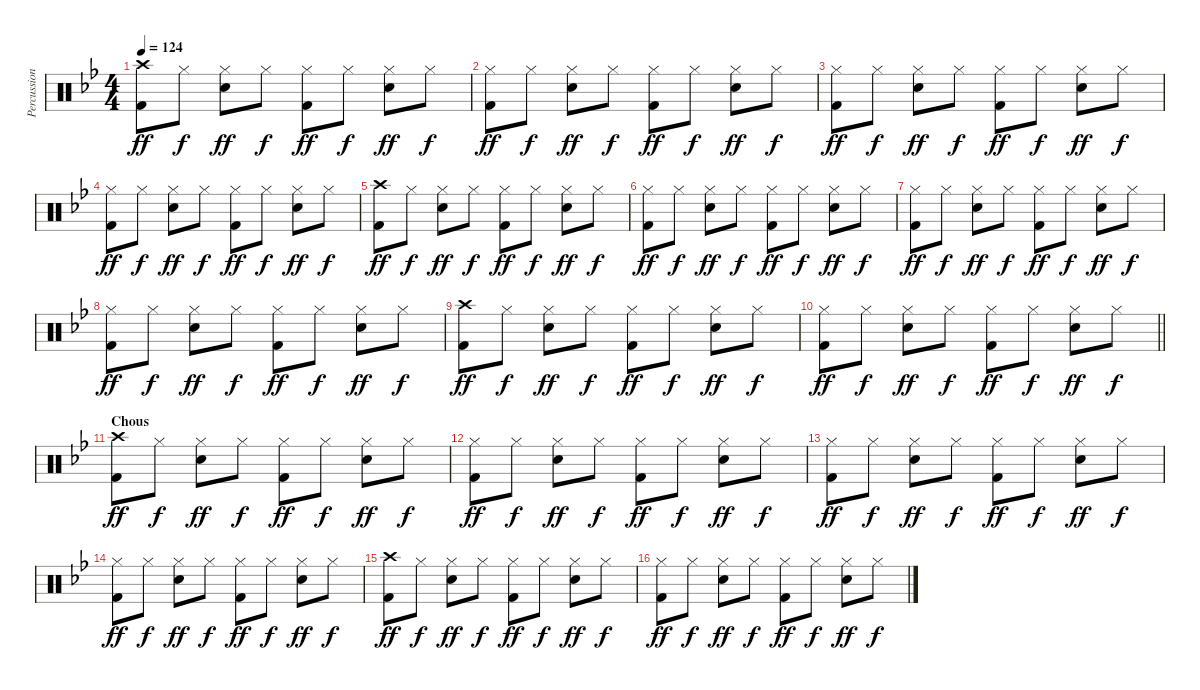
\track ("Percussion" "Percussion") {instrument percussion}
\staff {score}
\articulation defaults
\ts (4 4)
\tempo 124
\clef neutral
\ks gminor
("Crash high (hit)" "Kick (hit) 2").8{dy ff} "Hi-Hat (closed)".8{dy f} ("Hi-Hat (closed)" "Electric Snare (hit)").8{dy ff} "Hi-Hat (closed)".8{dy f} ("Hi-Hat (closed)" "Kick (hit) 2").8{dy ff} "Hi-Hat (closed)".8{dy f} ("Hi-Hat (closed)" "Electric Snare (hit)").8{dy ff} "Hi-Hat (closed)".8{dy f} |
("Hi-Hat (closed)" "Kick (hit) 2").8{dy ff} "Hi-Hat (closed)".8{dy f} ("Hi-Hat (closed)" "Electric Snare (hit)").8{dy ff} "Hi-Hat (closed)".8{dy f} ("Hi-Hat (closed)" "Kick (hit) 2").8{dy ff} "Hi-Hat (closed)".8{dy f} ("Hi-Hat (closed)" "Electric Snare (hit)").8{dy ff} "Hi-Hat (closed)".8{dy f} |
("Hi-Hat (closed)" "Kick (hit) 2").8{dy ff} "Hi-Hat (closed)".8{dy f} ("Hi-Hat (closed)" "Electric Snare (hit)").8{dy ff} "Hi-Hat (closed)".8{dy f} ("Hi-Hat (closed)" "Kick (hit) 2").8{dy ff} "Hi-Hat (closed)".8{dy f} ("Hi-Hat (closed)" "Electric Snare (hit)").8{dy ff} "Hi-Hat (closed)".8{dy f} |
("Hi-Hat (closed)" "Kick (hit) 2").8{dy ff} "Hi-Hat (closed)".8{dy f} ("Hi-Hat (closed)" "Electric Snare (hit)").8{dy ff} "Hi-Hat (closed)".8{dy f} ("Hi-Hat (closed)" "Kick (hit) 2").8{dy ff} "Hi-Hat (closed)".8{dy f} ("Hi-Hat (closed)" "Electric Snare (hit)").8{dy ff} "Hi-Hat (closed)".8{dy f} |
("Crash high (hit)" "Kick (hit) 2").8{dy ff} "Hi-Hat (closed)".8{dy f} ("Hi-Hat (closed)" "Electric Snare (hit)").8{dy ff} "Hi-Hat (closed)".8{dy f} ("Hi-Hat (closed)" "Kick (hit) 2").8{dy ff} "Hi-Hat (closed)".8{dy f} ("Hi-Hat (closed)" "Electric Snare (hit)").8{dy ff} "Hi-Hat (closed)".8{dy f} |
("Hi-Hat (closed)" "Kick (hit) 2").8{dy ff} "Hi-Hat (closed)".8{dy f} ("Hi-Hat (closed)" "Electric Snare (hit)").8{dy ff} "Hi-Hat (closed)".8{dy f} ("Hi-Hat (closed)" "Kick (hit) 2").8{dy ff} "Hi-Hat (closed)".8{dy f} ("Hi-Hat (closed)" "Electric Snare (hit)").8{dy ff} "Hi-Hat (closed)".8{dy f} |
("Hi-Hat (closed)" "Kick (hit) 2").8{dy ff} "Hi-Hat (closed)".8{dy f} ("Hi-Hat (closed)" "Electric Snare (hit)").8{dy ff} "Hi-Hat (closed)".8{dy f} ("Hi-Hat (closed)" "Kick (hit) 2").8{dy ff} "Hi-Hat (closed)".8{dy f} ("Hi-Hat (closed)" "Electric Snare (hit)").8{dy ff} "Hi-Hat (closed)".8{dy f} |
("Hi-Hat (closed)" "Kick (hit) 2").8{dy ff} "Hi-Hat (closed)".8{dy f} ("Hi-Hat (closed)" "Electric Snare (hit)").8{dy ff} "Hi-Hat (closed)".8{dy f} ("Hi-Hat (closed)" "Kick (hit) 2").8{dy ff} "Hi-Hat (closed)".8{dy f} ("Hi-Hat (closed)" "Electric Snare (hit)").8{dy ff} "Hi-Hat (closed)".8{dy f} |
("Crash high (hit)" "Kick (hit) 2").8{dy ff} "Hi-Hat (closed)".8{dy f} ("Hi-Hat (closed)" "Electric Snare (hit)").8{dy ff} "Hi-Hat (closed)".8{dy f} ("Hi-Hat (closed)" "Kick (hit) 2").8{dy ff} "Hi-Hat (closed)".8{dy f} ("Hi-Hat (closed)" "Electric Snare (hit)").8{dy ff} "Hi-Hat (closed)".8{dy f} |
\barLineRight lightlight
("Hi-Hat (closed)" "Kick (hit) 2").8{dy ff} "Hi-Hat (closed)".8{dy f} ("Hi-Hat (closed)" "Electric Snare (hit)").8{dy ff} "Hi-Hat (closed)".8{dy f} ("Hi-Hat (closed)" "Kick (hit) 2").8{dy ff} "Hi-Hat (closed)".8{dy f} ("Hi-Hat (closed)" "Electric Snare (hit)").8{dy ff} "Hi-Hat (closed)".8{dy f} |
\section ("" "Chous")
("Crash high (hit)" "Kick (hit) 2").8{dy ff} "Hi-Hat (closed)".8{dy f} ("Hi-Hat (closed)" "Electric Snare (hit)").8{dy ff} "Hi-Hat (closed)".8{dy f} ("Hi-Hat (closed)" "Kick (hit) 2").8{dy ff} "Hi-Hat (closed)".8{dy f} ("Hi-Hat (closed)" "Electric Snare (hit)").8{dy ff} "Hi-Hat (closed)".8{dy f} |
("Hi-Hat (closed)" "Kick (hit) 2").8{dy ff} "Hi-Hat (closed)".8{dy f} ("Hi-Hat (closed)" "Electric Snare (hit)").8{dy ff} "Hi-Hat (closed)".8{dy f} ("Hi-Hat (closed)" "Kick (hit) 2").8{dy ff} "Hi-Hat (closed)".8{dy f} ("Hi-Hat (closed)" "Electric Snare (hit)").8{dy ff} "Hi-Hat (closed)".8{dy f} |
("Hi-Hat (closed)" "Kick (hit) 2").8{dy ff} "Hi-Hat (closed)".8{dy f} ("Hi-Hat (closed)" "Electric Snare (hit)").8{dy ff} "Hi-Hat (closed)".8{dy f} ("Hi-Hat (closed)" "Kick (hit) 2").8{dy ff} "Hi-Hat (closed)".8{dy f} ("Hi-Hat (closed)" "Electric Snare (hit)").8{dy ff} "Hi-Hat (closed)".8{dy f} |
("Hi-Hat (closed)" "Kick (hit) 2").8{dy ff} "Hi-Hat (closed)".8{dy f} ("Hi-Hat (closed)" "Electric Snare (hit)").8{dy ff} "Hi-Hat (closed)".8{dy f} ("Hi-Hat (closed)" "Kick (hit) 2").8{dy ff} "Hi-Hat (closed)".8{dy f} ("Hi-Hat (closed)" "Electric Snare (hit)").8{dy ff} "Hi-Hat (closed)".8{dy f} |
("Crash high (hit)" "Kick (hit) 2").8{dy ff} "Hi-Hat (closed)".8{dy f} ("Hi-Hat (closed)" "Electric Snare (hit)").8{dy ff} "Hi-Hat (closed)".8{dy f} ("Hi-Hat (closed)" "Kick (hit) 2").8{dy ff} "Hi-Hat (closed)".8{dy f} ("Hi-Hat (closed)" "Electric Snare (hit)").8{dy ff} "Hi-Hat (closed)".8{dy f} |
("Hi-Hat (closed)" "Kick (hit) 2").8{dy ff} "Hi-Hat (closed)".8{dy f} ("Hi-Hat (closed)" "Electric Snare (hit)").8{dy ff} "Hi-Hat (closed)".8{dy f} ("Hi-Hat (closed)" "Kick (hit) 2").8{dy ff} "Hi-Hat (closed)".8{dy f} ("Hi-Hat (closed)" "Electric Snare (hit)").8{dy ff} "Hi-Hat (closed)".8{dy f}
